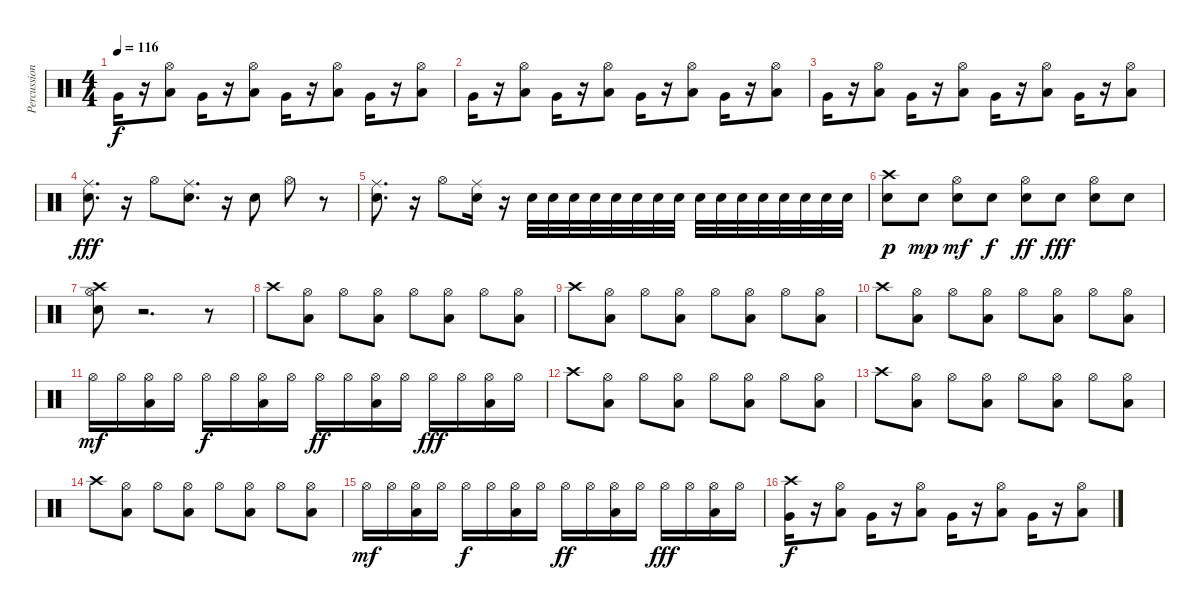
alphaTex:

\track ("Percussion (Glenn Porter)" "Percussion") {instrument percussion}
\staff {score}
\articulation defaults
\ts (4 4)
\tempo 116
\clef neutral
\ks c "Very Low Tom (hit)".16{dy f}
r.16 ("Hi-Hat (open)" "Low Tom (hit)").8 "Very Low Tom (hit)".16 r.16 ("Hi-Hat (open)" "Low Tom (hit)").8 "Very Low Tom (hit)".16 r.16 ("Hi-Hat (open)" "Low Tom (hit)").8 "Very Low Tom (hit)".16 r.16 ("Hi-Hat (open)" "Low Tom (hit)").8 |
"Very Low Tom (hit)".16 r.16 ("Hi-Hat (open)" "Low Tom (hit)").8 "Very Low Tom (hit)".16 r.16 ("Hi-Hat (open)" "Low Tom (hit)").8 "Very Low Tom (hit)".16 r.16 ("Hi-Hat (open)" "Low Tom (hit)").8 "Very Low Tom (hit)".16 r.16 ("Hi-Hat (open)" "Low Tom (hit)").8 |
"Very Low Tom (hit)".16 r.16 ("Hi-Hat (open)" "Low Tom (hit)").8 "Very Low Tom (hit)".16 r.16 ("Hi-Hat (open)" "Low Tom (hit)").8 "Very Low Tom (hit)".16 r.16 ("Hi-Hat (open)" "Low Tom (hit)").8 "Very Low Tom (hit)".16 r.16 ("Hi-Hat (open)" "Low Tom (hit)").8 |
("Ride (middle)" "Electric Snare (hit)").8{d dy fff} r.16 "Hi-Hat (open)".8 ("Ride (middle)" "Electric Snare (hit)").8{d} r.16 "Snare (hit) 2".8 "Hi-Hat (open)".8 r.8 |
("Ride (middle)" "Electric Snare (hit)").8{d} r.16 "Hi-Hat (open)".8 ("Ride (middle)" "Electric Snare (hit)").16 r.16 "Snare (hit) 2".32 "Snare (hit) 2".32 "Snare (hit) 2".32 "Snare (hit) 2".32 "Snare (hit) 2".32 "Snare (hit) 2".32 "Snare (hit) 2".32 "Snare (hit) 2".32 "Snare (hit) 2".32 "Snare (hit) 2".32 "Snare (hit) 2".32 "Snare (hit) 2".32 "Snare (hit) 2".32 "Snare (hit) 2".32 "Snare (hit) 2".32 "Snare (hit) 2".32 |
("Crash high (hit)" "Electric Snare (hit)").8{dy p} "Electric Snare (hit)".8{dy mp} ("Hi-Hat (open)" "Electric Snare (hit)").8{dy mf} "Electric Snare (hit)".8{dy f} ("Hi-Hat (open)" "Electric Snare (hit)").8{dy ff} "Electric Snare (hit)".8{dy fff} ("Hi-Hat (open)" "Electric Snare (hit)").8 "Electric Snare (hit)".8 |
("Crash high (hit)" "Hi-Hat (open)" "Electric Snare (hit)").8 r.2{d} r.8 |
"Crash high (hit)".8 ("Hi-Hat (open)" "Low Tom (hit)").8 "Hi-Hat (open)".8 ("Hi-Hat (open)" "Low Tom (hit)").8 "Hi-Hat (open)".8 ("Hi-Hat (open)" "Low Tom (hit)").8 "Hi-Hat (open)".8 ("Hi-Hat (open)" "Low Tom (hit)").8 |
"Crash high (hit)".8 ("Hi-Hat (open)" "Low Tom (hit)").8 "Hi-Hat (open)".8 ("Hi-Hat (open)" "Low Tom (hit)").8 "Hi-Hat (open)".8 ("Hi-Hat (open)" "Low Tom (hit)").8 "Hi-Hat (open)".8 ("Hi-Hat (open)" "Low Tom (hit)").8 |
"Crash high (hit)".8 ("Hi-Hat (open)" "Low Tom (hit)").8 "Hi-Hat (open)".8 ("Hi-Hat (open)" "Low Tom (hit)").8 "Hi-Hat (open)".8 ("Hi-Hat (open)" "Low Tom (hit)").8 "Hi-Hat (open)".8 ("Hi-Hat (open)" "Low Tom (hit)").8 |
"Hi-Hat (open)".16{dy mf} "Hi-Hat (open)".16 ("Hi-Hat (open)" "Low Tom (hit)").16 "Hi-Hat (open)".16 "Hi-Hat (open)".16{dy f} "Hi-Hat (open)".16 ("Hi-Hat (open)" "Low Tom (hit)").16 "Hi-Hat (open)".16 "Hi-Hat (open)".16{dy ff} "Hi-Hat (open)".16 ("Hi-Hat (open)" "Low Tom (hit)").16 "Hi-Hat (open)".16 "Hi-Hat (open)".16{dy fff} "Hi-Hat (open)".16 ("Hi-Hat (open)" "Low Tom (hit)").16 "Hi-Hat (open)".16 |
"Crash high (hit)".8 ("Hi-Hat (open)" "Low Tom (hit)").8 "Hi-Hat (open)".8 ("Hi-Hat (open)" "Low Tom (hit)").8 "Hi-Hat (open)".8 ("Hi-Hat (open)" "Low Tom (hit)").8 "Hi-Hat (open)".8 ("Hi-Hat (open)" "Low Tom (hit)").8 |
"Crash high (hit)".8 ("Hi-Hat (open)" "Low Tom (hit)").8 "Hi-Hat (open)".8 ("Hi-Hat (open)" "Low Tom (hit)").8 "Hi-Hat (open)".8 ("Hi-Hat (open)" "Low Tom (hit)").8 "Hi-Hat (open)".8 ("Hi-Hat (open)" "Low Tom (hit)").8 |
"Crash high (hit)".8 ("Hi-Hat (open)" "Low Tom (hit)").8 "Hi-Hat (open)".8 ("Hi-Hat (open)" "Low Tom (hit)").8 "Hi-Hat (open)".8 ("Hi-Hat (open)" "Low Tom (hit)").8 "Hi-Hat (open)".8 ("Hi-Hat (open)" "Low Tom (hit)").8 |
"Hi-Hat (open)".16{dy mf} "Hi-Hat (open)".16 ("Hi-Hat (open)" "Low Tom (hit)").16 "Hi-Hat (open)".16 "Hi-Hat (open)".16{dy f} "Hi-Hat (open)".16 ("Hi-Hat (open)" "Low Tom (hit)").16 "Hi-Hat (open)".16 "Hi-Hat (open)".16{dy ff} "Hi-Hat (open)".16 ("Hi-Hat (open)" "Low Tom (hit)").16 "Hi-Hat (open)".16 "Hi-Hat (open)".16{dy fff} "Hi-Hat (open)".16 ("Hi-Hat (open)" "Low Tom (hit)").16 "Hi-Hat (open)".16 |
("Crash high (hit)" "Very Low Tom (hit)").16{dy f} r.16 ("Hi-Hat (open)" "Low Tom (hit)").8 "Very Low Tom (hit)".16 r.16 ("Hi-Hat (open)" "Low Tom (hit)").8 "Very Low Tom (hit)".16 r.16 ("Hi-Hat (open)" "Low Tom (hit)").8 "Very Low Tom (hit)".16 r.16 ("Hi-Hat (open)" "Low Tom (hit)").8
